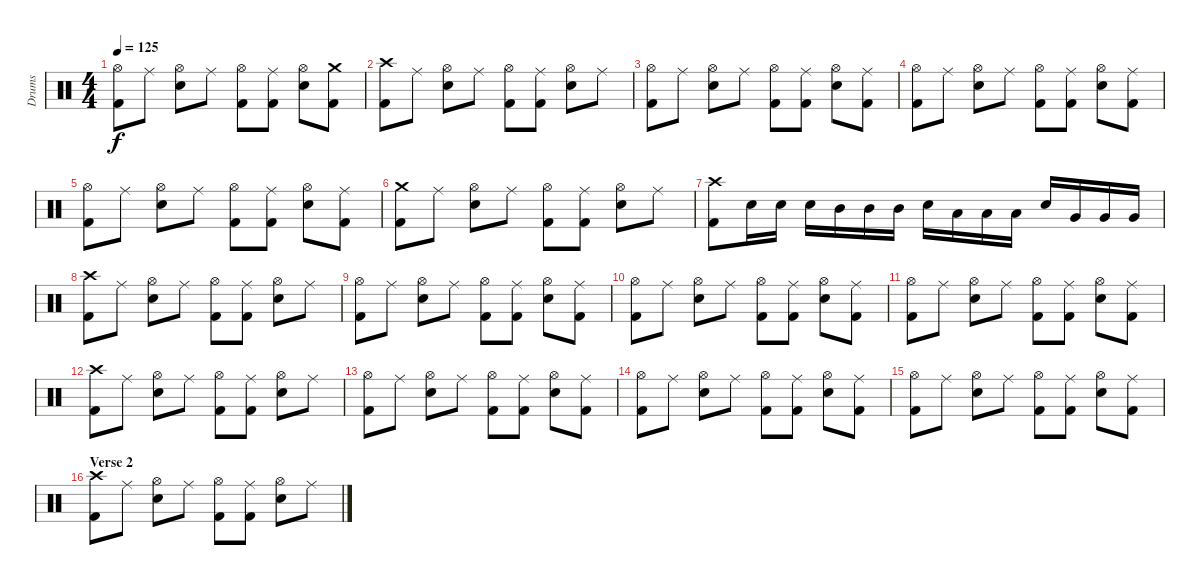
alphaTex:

\track ("Drums" "Drums") {instrument percussion}
\staff {score}
\articulation defaults
\ts (4 4)
\tempo 125
\clef neutral
\ks c
("Hi-Hat (open)" "Kick (hit) 2").8{dy f} "Ride (middle)".8 ("Hi-Hat (open)" "Electric Snare (hit)").8 "Ride (middle)".8 ("Hi-Hat (open)" "Kick (hit) 2").8 ("Ride (middle)" "Kick (hit) 2").8 ("Hi-Hat (open)" "Electric Snare (hit)").8 ("Crash medium (hit)" "Kick (hit) 2").8 |
("Crash high (hit)" "Kick (hit) 2").8 "Ride (middle)".8 ("Hi-Hat (open)" "Electric Snare (hit)").8 "Ride (middle)".8 ("Hi-Hat (open)" "Kick (hit) 2").8 ("Ride (middle)" "Kick (hit) 2").8 ("Hi-Hat (open)" "Electric Snare (hit)").8 "Ride (middle)".8 |
("Hi-Hat (open)" "Kick (hit) 2").8 "Ride (middle)".8 ("Hi-Hat (open)" "Electric Snare (hit)").8 "Ride (middle)".8 ("Hi-Hat (open)" "Kick (hit) 2").8 ("Ride (middle)" "Kick (hit) 2").8 ("Hi-Hat (open)" "Electric Snare (hit)").8 ("Ride (middle)" "Kick (hit) 2").8 |
("Hi-Hat (open)" "Kick (hit) 2").8 "Ride (middle)".8 ("Hi-Hat (open)" "Electric Snare (hit)").8 "Ride (middle)".8 ("Hi-Hat (open)" "Kick (hit) 2").8 ("Ride (middle)" "Kick (hit) 2").8 ("Hi-Hat (open)" "Electric Snare (hit)").8 ("Ride (middle)" "Kick (hit) 2").8 |
("Hi-Hat (open)" "Kick (hit) 2").8 "Ride (middle)".8 ("Hi-Hat (open)" "Electric Snare (hit)").8 "Ride (middle)".8 ("Hi-Hat (open)" "Kick (hit) 2").8 ("Ride (middle)" "Kick (hit) 2").8 ("Hi-Hat (open)" "Electric Snare (hit)").8 ("Ride (middle)" "Kick (hit) 2").8 |
("Crash medium (hit)" "Kick (hit) 2").8 "Ride (middle)".8 ("Hi-Hat (open)" "Electric Snare (hit)").8 "Ride (middle)".8 ("Hi-Hat (open)" "Kick (hit) 2").8 ("Ride (middle)" "Kick (hit) 2").8 ("Hi-Hat (open)" "Electric Snare (hit)").8 "Ride (middle)".8 |
("Crash high (hit)" "Kick (hit) 2").8 "Electric Snare (hit)".16 "Electric Snare (hit)".16 "Electric Snare (hit)".16 "Mid Tom (hit)".16 "Mid Tom (hit)".16 "Mid Tom (hit)".16 "Electric Snare (hit)".16 "Low Tom (hit)".16 "Low Tom (hit)".16 "Low Tom (hit)".16 "Electric Snare (hit)".16 "Very Low Tom (hit)".16 "Very Low Tom (hit)".16 "Very Low Tom (hit)".16 |
("Crash high (hit)" "Kick (hit) 2").8 "Ride (middle)".8 ("Hi-Hat (open)" "Electric Snare (hit)").8 "Ride (middle)".8 ("Hi-Hat (open)" "Kick (hit) 2").8 ("Ride (middle)" "Kick (hit) 2").8 ("Hi-Hat (open)" "Electric Snare (hit)").8 "Ride (middle)".8 |
("Hi-Hat (open)" "Kick (hit) 2").8 "Ride (middle)".8 ("Hi-Hat (open)" "Electric Snare (hit)").8 "Ride (middle)".8 ("Hi-Hat (open)" "Kick (hit) 2").8 ("Ride (middle)" "Kick (hit) 2").8 ("Hi-Hat (open)" "Electric Snare (hit)").8 ("Ride (middle)" "Kick (hit) 2").8 |
("Hi-Hat (open)" "Kick (hit) 2").8 "Ride (middle)".8 ("Hi-Hat (open)" "Electric Snare (hit)").8 "Ride (middle)".8 ("Hi-Hat (open)" "Kick (hit) 2").8 ("Ride (middle)" "Kick (hit) 2").8 ("Hi-Hat (open)" "Electric Snare (hit)").8 ("Ride (middle)" "Kick (hit) 2").8 |
("Hi-Hat (open)" "Kick (hit) 2").8 "Ride (middle)".8 ("Hi-Hat (open)" "Electric Snare (hit)").8 "Ride (middle)".8 ("Hi-Hat (open)" "Kick (hit) 2").8 ("Ride (middle)" "Kick (hit) 2").8 ("Hi-Hat (open)" "Electric Snare (hit)").8 ("Ride (middle)" "Kick (hit) 2").8 |
("Crash high (hit)" "Kick (hit) 2").8 "Ride (middle)".8 ("Hi-Hat (open)" "Electric Snare (hit)").8 "Ride (middle)".8 ("Hi-Hat (open)" "Kick (hit) 2").8 ("Ride (middle)" "Kick (hit) 2").8 ("Hi-Hat (open)" "Electric Snare (hit)").8 "Ride (middle)".8 |
("Hi-Hat (open)" "Kick (hit) 2").8 "Ride (middle)".8 ("Hi-Hat (open)" "Electric Snare (hit)").8 "Ride (middle)".8 ("Hi-Hat (open)" "Kick (hit) 2").8 ("Ride (middle)" "Kick (hit) 2").8 ("Hi-Hat (open)" "Electric Snare (hit)").8 ("Ride (middle)" "Kick (hit) 2").8 |
("Hi-Hat (open)" "Kick (hit) 2").8 "Ride (middle)".8 ("Hi-Hat (open)" "Electric Snare (hit)").8 "Ride (middle)".8 ("Hi-Hat (open)" "Kick (hit) 2").8 ("Ride (middle)" "Kick (hit) 2").8 ("Hi-Hat (open)" "Electric Snare (hit)").8 ("Ride (middle)" "Kick (hit) 2").8 |
("Hi-Hat (open)" "Kick (hit) 2").8 "Ride (middle)".8 ("Hi-Hat (open)" "Electric Snare (hit)").8 "Ride (middle)".8 ("Hi-Hat (open)" "Kick (hit) 2").8 ("Ride (middle)" "Kick (hit) 2").8 ("Hi-Hat (open)" "Electric Snare (hit)").8 ("Ride (middle)" "Kick (hit) 2").8 |
\section ("" "Verse 2")
("Crash high (hit)" "Kick (hit) 2").8 "Ride (middle)".8 ("Hi-Hat (open)" "Electric Snare (hit)").8 "Ride (middle)".8 ("Hi-Hat (open)" "Kick (hit) 2").8 ("Ride (middle)" "Kick (hit) 2").8 ("Hi-Hat (open)" "Electric Snare (hit)").8 "Ride (middle)".8
